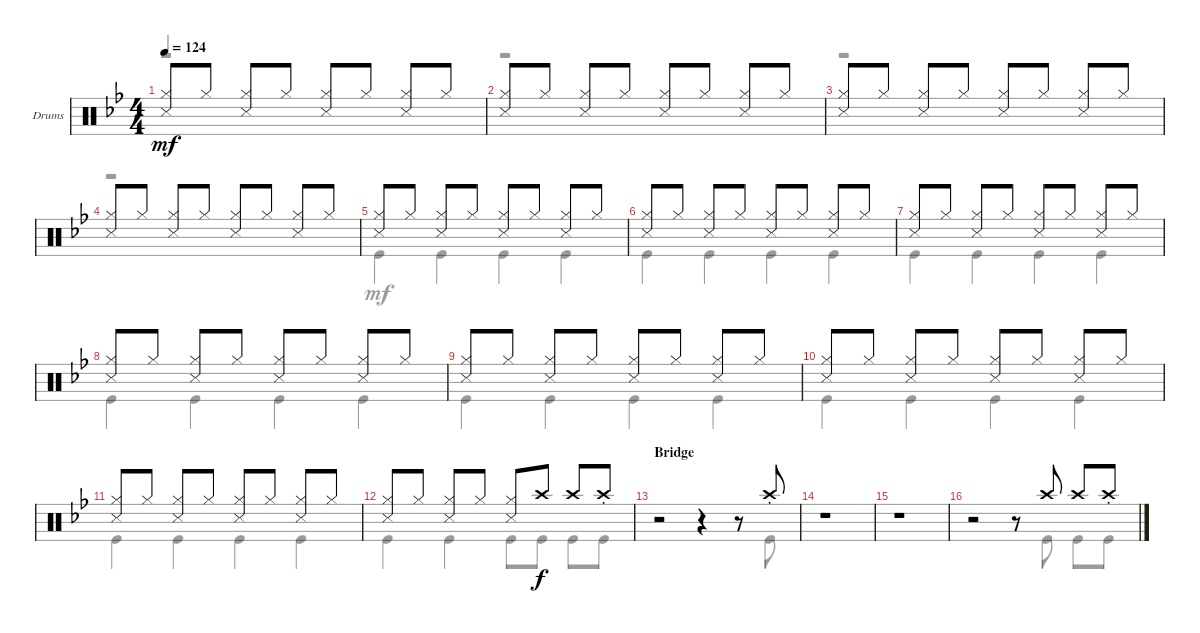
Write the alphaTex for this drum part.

\defaultSystemsLayout 4
\bracketExtendMode groupsimilarinstruments
\firstSystemTrackNameOrientation horizontal
\otherSystemsTrackNameOrientation horizontal
\track ("Drums" "Drums") {instrument percussion}
\staff {score}
\articulation defaults
\voice
\ts (4 4)
\tempo 124
\clef neutral
\ks gminor
("Hi-Hat (closed)" "Snare (side stick) 3").8{dy mf} "Hi-Hat (closed)".8 ("Hi-Hat (closed)" "Snare (side stick) 3").8 "Hi-Hat (closed)".8 ("Hi-Hat (closed)" "Snare (side stick) 3").8 "Hi-Hat (closed)".8 ("Hi-Hat (closed)" "Snare (side stick) 3").8 "Hi-Hat (closed)".8 |
("Hi-Hat (closed)" "Snare (side stick) 3").8 "Hi-Hat (closed)".8 ("Hi-Hat (closed)" "Snare (side stick) 3").8 "Hi-Hat (closed)".8 ("Hi-Hat (closed)" "Snare (side stick) 3").8 "Hi-Hat (closed)".8 ("Hi-Hat (closed)" "Snare (side stick) 3").8 "Hi-Hat (closed)".8 |
("Hi-Hat (closed)" "Snare (side stick) 3").8 "Hi-Hat (closed)".8 ("Hi-Hat (closed)" "Snare (side stick) 3").8 "Hi-Hat (closed)".8 ("Hi-Hat (closed)" "Snare (side stick) 3").8 "Hi-Hat (closed)".8 ("Hi-Hat (closed)" "Snare (side stick) 3").8 "Hi-Hat (closed)".8 |
("Hi-Hat (closed)" "Snare (side stick) 3").8 "Hi-Hat (closed)".8 ("Hi-Hat (closed)" "Snare (side stick) 3").8 "Hi-Hat (closed)".8 ("Hi-Hat (closed)" "Snare (side stick) 3").8 "Hi-Hat (closed)".8 ("Hi-Hat (closed)" "Snare (side stick) 3").8 "Hi-Hat (closed)".8 |
("Hi-Hat (closed)" "Snare (side stick) 3").8 "Hi-Hat (closed)".8 ("Hi-Hat (closed)" "Snare (side stick) 3").8 "Hi-Hat (closed)".8 ("Hi-Hat (closed)" "Snare (side stick) 3").8 "Hi-Hat (closed)".8 ("Hi-Hat (closed)" "Snare (side stick) 3").8 "Hi-Hat (closed)".8 |
("Hi-Hat (closed)" "Snare (side stick) 3").8 "Hi-Hat (closed)".8 ("Hi-Hat (closed)" "Snare (side stick) 3").8 "Hi-Hat (closed)".8 ("Hi-Hat (closed)" "Snare (side stick) 3").8 "Hi-Hat (closed)".8 ("Hi-Hat (closed)" "Snare (side stick) 3").8 "Hi-Hat (closed)".8 |
("Hi-Hat (closed)" "Snare (side stick) 3").8 "Hi-Hat (closed)".8 ("Hi-Hat (closed)" "Snare (side stick) 3").8 "Hi-Hat (closed)".8 ("Hi-Hat (closed)" "Snare (side stick) 3").8 "Hi-Hat (closed)".8 ("Hi-Hat (closed)" "Snare (side stick) 3").8 "Hi-Hat (closed)".8 |
("Hi-Hat (closed)" "Snare (side stick) 3").8 "Hi-Hat (closed)".8 ("Hi-Hat (closed)" "Snare (side stick) 3").8 "Hi-Hat (closed)".8 ("Hi-Hat (closed)" "Snare (side stick) 3").8 "Hi-Hat (closed)".8 ("Hi-Hat (closed)" "Snare (side stick) 3").8 "Hi-Hat (closed)".8 |
("Hi-Hat (closed)" "Snare (side stick) 3").8 "Hi-Hat (closed)".8 ("Hi-Hat (closed)" "Snare (side stick) 3").8 "Hi-Hat (closed)".8 ("Hi-Hat (closed)" "Snare (side stick) 3").8 "Hi-Hat (closed)".8 ("Hi-Hat (closed)" "Snare (side stick) 3").8 "Hi-Hat (closed)".8 |
("Hi-Hat (closed)" "Snare (side stick) 3").8 "Hi-Hat (closed)".8 ("Hi-Hat (closed)" "Snare (side stick) 3").8 "Hi-Hat (closed)".8 ("Hi-Hat (closed)" "Snare (side stick) 3").8 "Hi-Hat (closed)".8 ("Hi-Hat (closed)" "Snare (side stick) 3").8 "Hi-Hat (closed)".8 |
("Hi-Hat (closed)" "Snare (side stick) 3").8 "Hi-Hat (closed)".8 ("Hi-Hat (closed)" "Snare (side stick) 3").8 "Hi-Hat (closed)".8 ("Hi-Hat (closed)" "Snare (side stick) 3").8 "Hi-Hat (closed)".8 ("Hi-Hat (closed)" "Snare (side stick) 3").8 "Hi-Hat (closed)".8 |
("Hi-Hat (closed)" "Snare (side stick) 3").8 "Hi-Hat (closed)".8 ("Hi-Hat (closed)" "Snare (side stick) 3").8 "Hi-Hat (closed)".8 ("Hi-Hat (closed)" "Snare (side stick) 3").8 "Crash high (hit)".8{dy f} "Crash high (hit)".8 "Crash high (hit)"{st}.8 |
\section ("" "Bridge")
r.2 r.4 r.8 "Crash high (hit)"{st}.8 |
r.1 |
r.1 |
r.2 r.8 "Crash high (hit)".8 "Crash high (hit)".8 "Crash high (hit)"{st}.8
\voice
\clef neutral
\ottava regular
\simile none
\ks gminor
r.1{dy mf} |
r.1 |
r.1 |
r.1 |
"Kick (hit)".4 "Kick (hit)".4 "Kick (hit)".4 "Kick (hit)".4 |
"Kick (hit)".4 "Kick (hit)".4 "Kick (hit)".4 "Kick (hit)".4 |
"Kick (hit)".4 "Kick (hit)".4 "Kick (hit)".4 "Kick (hit)".4 |
"Kick (hit)".4 "Kick (hit)".4 "Kick (hit)".4 "Kick (hit)".4 |
"Kick (hit)".4 "Kick (hit)".4 "Kick (hit)".4 "Kick (hit)".4 |
"Kick (hit)".4 "Kick (hit)".4 "Kick (hit)".4 "Kick (hit)".4 |
"Kick (hit)".4 "Kick (hit)".4 "Kick (hit)".4 "Kick (hit)".4 |
"Kick (hit)".4 "Kick (hit)".4 "Kick (hit)".8 "Kick (hit)".8{dy f} "Kick (hit)".8 "Kick (hit)".8 |
r.2 r.4 r.8 "Kick (hit)".8 |
r.1 |
r.1 |
r.2 r.8 "Kick (hit)".8 "Kick (hit)".8 "Kick (hit)".8
